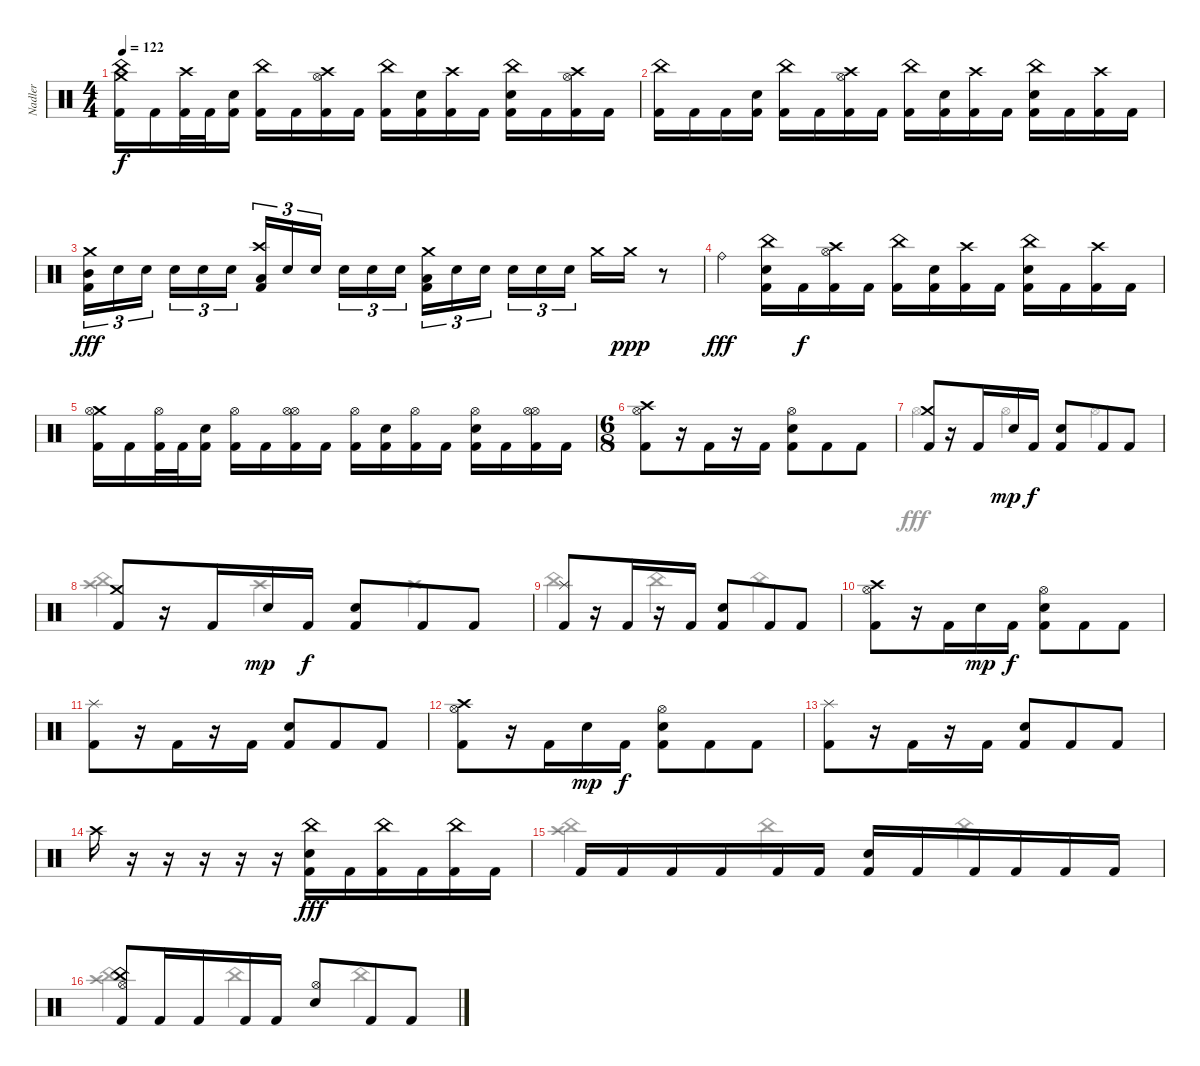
\track ("Nadler" "Nadler") {mute instrument percussion}
\staff {score}
\articulation defaults
\voice
\ts (4 4)
\tempo 122
\clef neutral
\ks c
("Crash medium (hit)" "China (hit)" "Kick (hit) 2").16{dy f} "Kick (hit) 2".16 ("Crash high (hit)" "Kick (hit) 2").32 "Kick (hit) 2".32 ("Electric Snare (hit)" "Kick (hit) 2").16 ("China (hit)" "Kick (hit) 2").16 "Kick (hit) 2".16 ("Crash high (hit)" "Hi-Hat (open)" "Kick (hit) 2").16 "Kick (hit) 2".16 ("China (hit)" "Kick (hit) 2").16 ("Electric Snare (hit)" "Kick (hit) 2").16 ("Crash high (hit)" "Kick (hit) 2").16 "Kick (hit) 2".16 ("China (hit)" "Electric Snare (hit)" "Kick (hit) 2").16 "Kick (hit) 2".16 ("Crash high (hit)" "Hi-Hat (open)" "Kick (hit) 2").16 "Kick (hit) 2".16 |
("China (hit)" "Kick (hit) 2").16 "Kick (hit) 2".16 "Kick (hit) 2".16 ("Electric Snare (hit)" "Kick (hit) 2").16 ("China (hit)" "Kick (hit) 2").16 "Kick (hit) 2".16 ("Crash high (hit)" "Hi-Hat (open)" "Kick (hit) 2").16 "Kick (hit) 2".16 ("China (hit)" "Kick (hit) 2").16 ("Electric Snare (hit)" "Kick (hit) 2").16 ("Crash high (hit)" "Kick (hit) 2").16 "Kick (hit) 2".16 ("China (hit)" "Electric Snare (hit)" "Kick (hit) 2").16 "Kick (hit) 2".16 ("Crash high (hit)" "Kick (hit) 2").16 "Kick (hit) 2".16 |
("Crash medium (hit)" "Mid Tom (hit)" "Kick (hit) 2").16{tu (3 2) dy fff balance 0} "Electric Snare (hit)".16{tu (3 2)} "Electric Snare (hit)".16{tu (3 2) beam splitsecondary} "Electric Snare (hit)".16{tu (3 2)} "Electric Snare (hit)".16{tu (3 2)} "Electric Snare (hit)".16{tu (3 2)} ("Crash high (hit)" "Low Tom (hit)" "Kick (hit) 2").16{tu (3 2) balance 16} "Electric Snare (hit)".16{tu (3 2)} "Electric Snare (hit)".16{tu (3 2) beam splitsecondary} "Electric Snare (hit)".16{tu (3 2)} "Electric Snare (hit)".16{tu (3 2)} "Electric Snare (hit)".16{tu (3 2)} ("Crash medium (hit)" "Low Floor Tom (hit)" "Kick (hit) 2").16{tu (3 2) balance 8} "Electric Snare (hit)".16{tu (3 2)} "Electric Snare (hit)".16{tu (3 2) beam splitsecondary} "Electric Snare (hit)".16{tu (3 2)} "Electric Snare (hit)".16{tu (3 2)} "Electric Snare (hit)".16{tu (3 2)} "Crash medium (hit)".16 "Crash medium (hit)".16{dy ppp} r.8 |
"Ride (bell)".4{dy fff} ("China (hit)" "Electric Snare (hit)" "Kick (hit) 2").16 "Kick (hit) 2".16{dy f} ("Crash high (hit)" "Hi-Hat (open)" "Kick (hit) 2").16 "Kick (hit) 2".16 ("China (hit)" "Kick (hit) 2").16 ("Electric Snare (hit)" "Kick (hit) 2").16 ("Crash high (hit)" "Kick (hit) 2").16 "Kick (hit) 2".16 ("China (hit)" "Electric Snare (hit)" "Kick (hit) 2").16 "Kick (hit) 2".16 ("Crash high (hit)" "Kick (hit) 2").16 "Kick (hit) 2".16 |
("Crash medium (hit)" "Hi-Hat (open)" "Kick (hit) 2").16 "Kick (hit) 2".16 ("Hi-Hat (open)" "Kick (hit) 2").32 "Kick (hit) 2".32 ("Electric Snare (hit)" "Kick (hit) 2").16 ("Hi-Hat (open)" "Kick (hit) 2").16 "Kick (hit) 2".16 ("Hi-Hat (open)" "Hi-Hat (open)" "Kick (hit) 2").16 "Kick (hit) 2".16 ("Hi-Hat (open)" "Kick (hit) 2").16 ("Electric Snare (hit)" "Kick (hit) 2").16 ("Hi-Hat (open)" "Kick (hit) 2").16 "Kick (hit) 2".16 ("Hi-Hat (open)" "Electric Snare (hit)" "Kick (hit) 2").16 "Kick (hit) 2".16 ("Hi-Hat (open)" "Hi-Hat (open)" "Kick (hit) 2").16 "Kick (hit) 2".16 |
\ts (6 8)
("Crash high (hit)" "Hi-Hat (open)" "Kick (hit) 2").8 r.16 "Kick (hit) 2".16 r.16 "Kick (hit) 2".16 ("Hi-Hat (open)" "Electric Snare (hit)" "Kick (hit) 2").8 "Kick (hit) 2".8 "Kick (hit) 2".8 |
("Crash medium (hit)" "Kick (hit) 2").8 r.16 "Kick (hit) 2".16 "Electric Snare (hit)".16{dy mp} "Kick (hit) 2".16{dy f} ("Electric Snare (hit)" "Kick (hit) 2").8 "Kick (hit) 2".8 "Kick (hit) 2".8 |
("Crash medium (hit)" "Kick (hit) 2").8 r.16 "Kick (hit) 2".16 "Electric Snare (hit)".16{dy mp} "Kick (hit) 2".16{dy f} ("Electric Snare (hit)" "Kick (hit) 2").8 "Kick (hit) 2".8 "Kick (hit) 2".8 |
("Splash (hit)" "Kick (hit) 2").8 r.16 "Kick (hit) 2".16 r.16 "Kick (hit) 2".16 ("Electric Snare (hit)" "Kick (hit) 2").8 "Kick (hit) 2".8 "Kick (hit) 2".8 |
("Crash high (hit)" "Hi-Hat (open)" "Kick (hit) 2").8 r.16 "Kick (hit) 2".16 "Electric Snare (hit)".16{dy mp} "Kick (hit) 2".16{dy f} ("Hi-Hat (open)" "Electric Snare (hit)" "Kick (hit) 2").8 "Kick (hit) 2".8 "Kick (hit) 2".8 |
("Splash (hit)" "Kick (hit) 2").8 r.16 "Kick (hit) 2".16 r.16 "Kick (hit) 2".16 ("Electric Snare (hit)" "Kick (hit) 2").8 "Kick (hit) 2".8 "Kick (hit) 2".8 |
("Crash high (hit)" "Hi-Hat (open)" "Kick (hit) 2").8 r.16 "Kick (hit) 2".16 "Electric Snare (hit)".16{dy mp} "Kick (hit) 2".16{dy f} ("Hi-Hat (open)" "Electric Snare (hit)" "Kick (hit) 2").8 "Kick (hit) 2".8 "Kick (hit) 2".8 |
("Splash (hit)" "Kick (hit) 2").8 r.16 "Kick (hit) 2".16 r.16 "Kick (hit) 2".16 ("Electric Snare (hit)" "Kick (hit) 2").8 "Kick (hit) 2".8 "Kick (hit) 2".8 |
"Crash high (hit)".16 r.16 r.16 r.16 r.16 r.16 ("China (hit)" "Electric Snare (hit)" "Kick (hit) 2").16{dy fff} "Kick (hit) 2".16 ("China (hit)" "Kick (hit) 2").16 "Kick (hit) 2".16 ("China (hit)" "Kick (hit) 2").16 "Kick (hit) 2".16 |
"Kick (hit) 2".16 "Kick (hit) 2".16 "Kick (hit) 2".16 "Kick (hit) 2".16 "Kick (hit) 2".16 "Kick (hit) 2".16 ("Electric Snare (hit)" "Kick (hit) 2").16 "Kick (hit) 2".16 "Kick (hit) 2".16 "Kick (hit) 2".16 "Kick (hit) 2".16 "Kick (hit) 2".16 |
("Hi-Hat (open)" "China (hit)" "Kick (hit) 2").8 "Kick (hit) 2".16 "Kick (hit) 2".16 "Kick (hit) 2".16 "Kick (hit) 2".16 ("Hi-Hat (open)" "Electric Snare (hit)").8 "Kick (hit) 2".8 "Kick (hit) 2".8
\voice
\clef neutral
\ottava regular
\simile none
\ks c
|
|
|
|
|
|
"Hi-Hat (open)".4 "Hi-Hat (open)".4 "Hi-Hat (open)".4 |
("China (hit)" "Crash high (hit)").4 "Crash high (hit)".4 "Crash high (hit)".4 |
"China (hit)".4 "China (hit)".4 "China (hit)".4 |
|
|
|
|
|
("China (hit)" "Crash high (hit)").4{dy fff} "China (hit)".4 "China (hit)".4 |
("China (hit)" "Crash high (hit)").4 "China (hit)".4 "China (hit)".4
